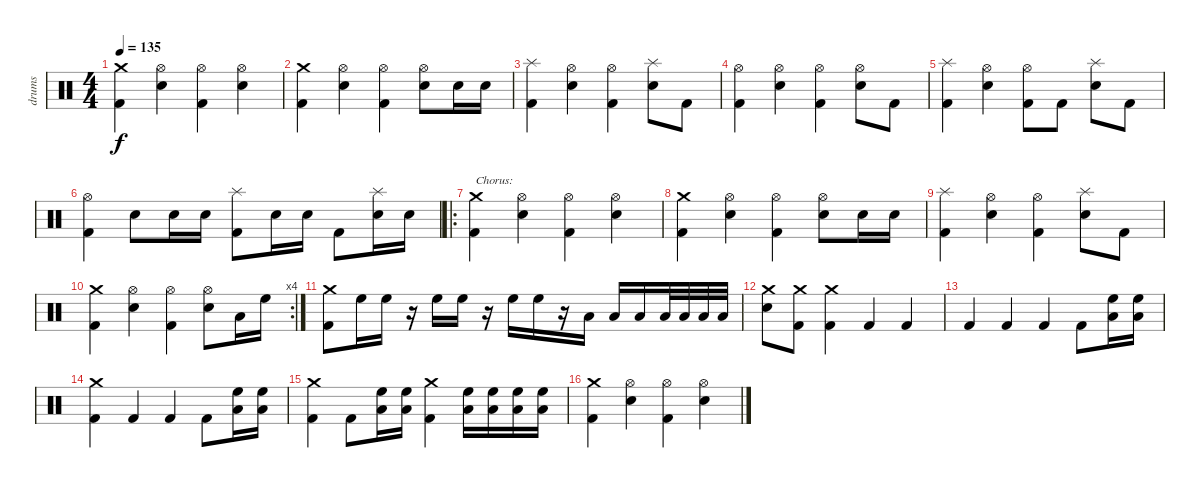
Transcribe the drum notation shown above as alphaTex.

\track ("drums" "drums") {instrument percussion}
\staff {score}
\articulation defaults
\ts (4 4)
\tempo 135
\clef neutral
\ks c
("Crash medium (hit)" "Kick (hit) 2").4{dy f} ("Hi-Hat (open)" "Electric Snare (hit)").4 ("Hi-Hat (open)" "Kick (hit) 2").4 ("Hi-Hat (open)" "Electric Snare (hit)").4 |
("Crash medium (hit)" "Kick (hit) 2").4 ("Hi-Hat (open)" "Electric Snare (hit)").4 ("Hi-Hat (open)" "Kick (hit) 2").4 ("Hi-Hat (open)" "Electric Snare (hit)").8 "Electric Snare (hit)".16 "Electric Snare (hit)".16 |
("Splash (hit)" "Kick (hit) 2").4 ("Hi-Hat (open)" "Electric Snare (hit)").4 ("Hi-Hat (open)" "Kick (hit) 2").4 ("Splash (hit)" "Electric Snare (hit)").8 "Kick (hit) 2".8 |
("Hi-Hat (open)" "Kick (hit) 2").4 ("Hi-Hat (open)" "Electric Snare (hit)").4 ("Hi-Hat (open)" "Kick (hit) 2").4 ("Hi-Hat (open)" "Electric Snare (hit)").8 "Kick (hit) 2".8 |
("Splash (hit)" "Kick (hit) 2").4 ("Hi-Hat (open)" "Electric Snare (hit)").4 ("Hi-Hat (open)" "Kick (hit) 2").8 "Kick (hit) 2".8 ("Splash (hit)" "Electric Snare (hit)").8 "Kick (hit) 2".8 |
("Hi-Hat (open)" "Kick (hit) 2").4 "Electric Snare (hit)".8 "Electric Snare (hit)".16 "Electric Snare (hit)".16 ("Splash (hit)" "Kick (hit) 2").8 "Electric Snare (hit)".16 "Electric Snare (hit)".16 "Kick (hit) 2".8 ("Splash (hit)" "Electric Snare (hit)").16 "Electric Snare (hit)".16 |
\ro
("Crash medium (hit)" "Kick (hit) 2").4{txt "Chorus:"} ("Hi-Hat (open)" "Electric Snare (hit)").4 ("Hi-Hat (open)" "Kick (hit) 2").4 ("Hi-Hat (open)" "Electric Snare (hit)").4 |
("Crash medium (hit)" "Kick (hit) 2").4 ("Hi-Hat (open)" "Electric Snare (hit)").4 ("Hi-Hat (open)" "Kick (hit) 2").4 ("Hi-Hat (open)" "Electric Snare (hit)").8 "Electric Snare (hit)".16 "Electric Snare (hit)".16 |
("Splash (hit)" "Kick (hit) 2").4 ("Hi-Hat (open)" "Electric Snare (hit)").4 ("Hi-Hat (open)" "Kick (hit) 2").4 ("Splash (hit)" "Electric Snare (hit)").8 "Kick (hit) 2".8 |
\rc 4
("Crash medium (hit)" "Kick (hit) 2").4 ("Hi-Hat (open)" "Electric Snare (hit)").4 ("Hi-Hat (open)" "Kick (hit) 2").4 ("Hi-Hat (open)" "Electric Snare (hit)").8 "Low Tom (hit)".16 "High Floor Tom (hit)".16 |
("Crash medium (hit)" "Kick (hit) 2").8 "High Floor Tom (hit)".16 "High Floor Tom (hit)".16 r.16 "High Floor Tom (hit)".16 "High Floor Tom (hit)".16 r.16 "High Floor Tom (hit)".16 "High Floor Tom (hit)".16 r.16 "Low Tom (hit)".16 "Low Tom (hit)".16 "Low Tom (hit)".16 "Low Tom (hit)".32 "Low Tom (hit)".32 "Low Tom (hit)".32 "Low Tom (hit)".32 |
("Crash medium (hit)" "Electric Snare (hit)").8 ("Crash medium (hit)" "Kick (hit) 2").8 ("Crash medium (hit)" "Kick (hit) 2").4 "Kick (hit) 2".4 "Kick (hit) 2".4 |
"Kick (hit) 2".4 "Kick (hit) 2".4 "Kick (hit) 2".4 "Kick (hit) 2".8 ("High Floor Tom (hit)" "Low Tom (hit)").16 ("Low Tom (hit)" "High Floor Tom (hit)").16 |
("Crash medium (hit)" "Kick (hit) 2").4 "Kick (hit) 2".4 "Kick (hit) 2".4 "Kick (hit) 2".8 ("High Floor Tom (hit)" "Low Tom (hit)").16 ("Low Tom (hit)" "High Floor Tom (hit)").16 |
("Crash medium (hit)" "Kick (hit) 2").4 "Kick (hit) 2".8 ("High Floor Tom (hit)" "Low Tom (hit)").16 ("Low Tom (hit)" "High Floor Tom (hit)").16 ("Crash medium (hit)" "Kick (hit) 2").4 ("Low Tom (hit)" "High Floor Tom (hit)").16 ("Low Tom (hit)" "High Floor Tom (hit)").16 ("High Floor Tom (hit)" "Low Tom (hit)").16 ("High Floor Tom (hit)" "Low Tom (hit)").16 |
("Crash medium (hit)" "Kick (hit) 2").4 ("Hi-Hat (open)" "Electric Snare (hit)").4 ("Hi-Hat (open)" "Kick (hit) 2").4 ("Hi-Hat (open)" "Electric Snare (hit)").4
